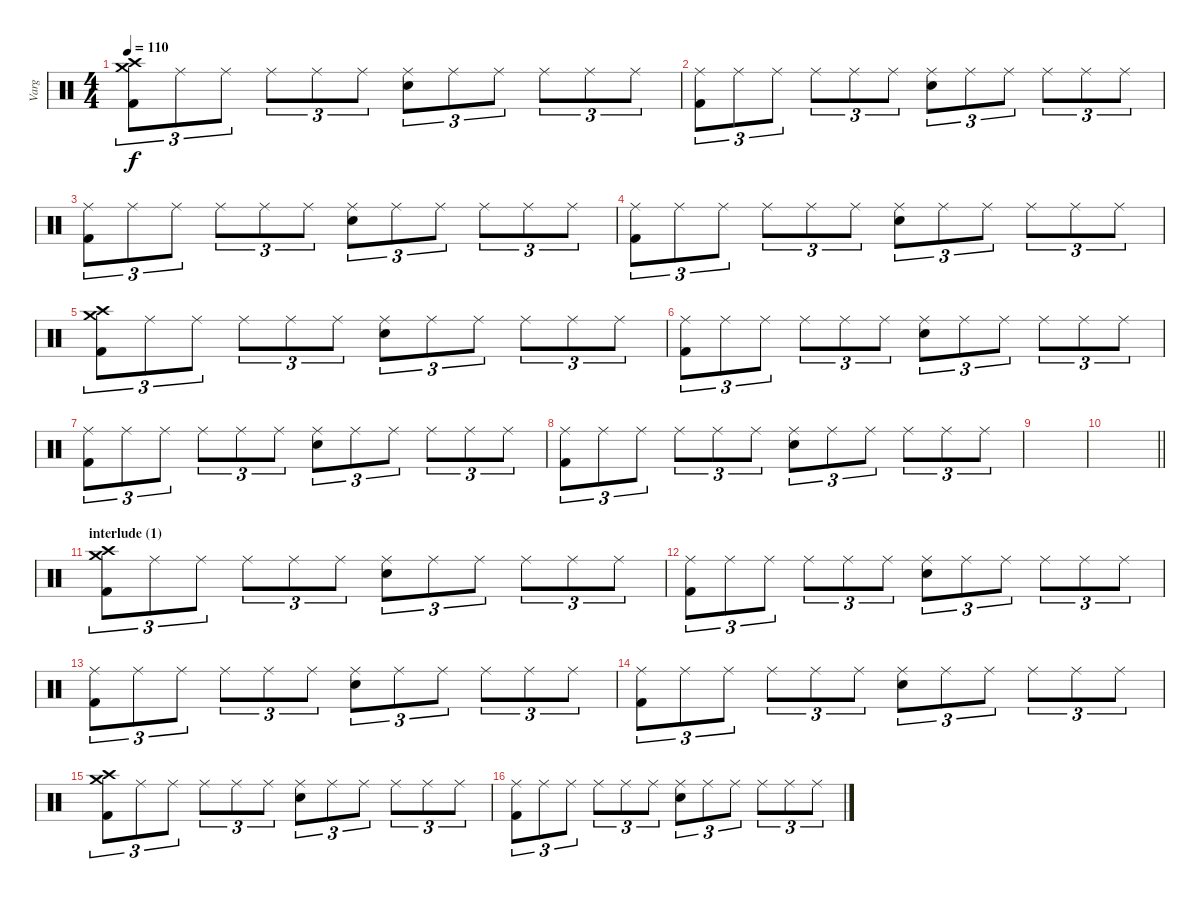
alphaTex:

\track ("Varg" "Varg") {instrument percussion}
\staff {score}
\articulation defaults
\ts (4 4)
\tempo 110
\clef neutral
\ks c
("Crash high (hit)" "Crash medium (hit)" "Kick (hit) 2").8{tu (3 2) dy f} "Ride (middle)".8{tu (3 2)} "Ride (middle)".8{tu (3 2)} "Ride (middle)".8{tu (3 2)} "Ride (middle)".8{tu (3 2)} "Ride (middle)".8{tu (3 2)} ("Ride (middle)" "Snare (hit) 2").8{tu (3 2)} "Ride (middle)".8{tu (3 2)} "Ride (middle)".8{tu (3 2)} "Ride (middle)".8{tu (3 2)} "Ride (middle)".8{tu (3 2)} "Ride (middle)".8{tu (3 2)} |
("Ride (middle)" "Kick (hit) 2").8{tu (3 2)} "Ride (middle)".8{tu (3 2)} "Ride (middle)".8{tu (3 2)} "Ride (middle)".8{tu (3 2)} "Ride (middle)".8{tu (3 2)} "Ride (middle)".8{tu (3 2)} ("Ride (middle)" "Snare (hit) 2").8{tu (3 2)} "Ride (middle)".8{tu (3 2)} "Ride (middle)".8{tu (3 2)} "Ride (middle)".8{tu (3 2)} "Ride (middle)".8{tu (3 2)} "Ride (middle)".8{tu (3 2)} |
("Ride (middle)" "Kick (hit) 2").8{tu (3 2)} "Ride (middle)".8{tu (3 2)} "Ride (middle)".8{tu (3 2)} "Ride (middle)".8{tu (3 2)} "Ride (middle)".8{tu (3 2)} "Ride (middle)".8{tu (3 2)} ("Ride (middle)" "Snare (hit) 2").8{tu (3 2)} "Ride (middle)".8{tu (3 2)} "Ride (middle)".8{tu (3 2)} "Ride (middle)".8{tu (3 2)} "Ride (middle)".8{tu (3 2)} "Ride (middle)".8{tu (3 2)} |
("Ride (middle)" "Kick (hit) 2").8{tu (3 2)} "Ride (middle)".8{tu (3 2)} "Ride (middle)".8{tu (3 2)} "Ride (middle)".8{tu (3 2)} "Ride (middle)".8{tu (3 2)} "Ride (middle)".8{tu (3 2)} ("Ride (middle)" "Snare (hit) 2").8{tu (3 2)} "Ride (middle)".8{tu (3 2)} "Ride (middle)".8{tu (3 2)} "Ride (middle)".8{tu (3 2)} "Ride (middle)".8{tu (3 2)} "Ride (middle)".8{tu (3 2)} |
("Crash high (hit)" "Crash medium (hit)" "Kick (hit) 2").8{tu (3 2)} "Ride (middle)".8{tu (3 2)} "Ride (middle)".8{tu (3 2)} "Ride (middle)".8{tu (3 2)} "Ride (middle)".8{tu (3 2)} "Ride (middle)".8{tu (3 2)} ("Ride (middle)" "Snare (hit) 2").8{tu (3 2)} "Ride (middle)".8{tu (3 2)} "Ride (middle)".8{tu (3 2)} "Ride (middle)".8{tu (3 2)} "Ride (middle)".8{tu (3 2)} "Ride (middle)".8{tu (3 2)} |
("Ride (middle)" "Kick (hit) 2").8{tu (3 2)} "Ride (middle)".8{tu (3 2)} "Ride (middle)".8{tu (3 2)} "Ride (middle)".8{tu (3 2)} "Ride (middle)".8{tu (3 2)} "Ride (middle)".8{tu (3 2)} ("Ride (middle)" "Snare (hit) 2").8{tu (3 2)} "Ride (middle)".8{tu (3 2)} "Ride (middle)".8{tu (3 2)} "Ride (middle)".8{tu (3 2)} "Ride (middle)".8{tu (3 2)} "Ride (middle)".8{tu (3 2)} |
("Ride (middle)" "Kick (hit) 2").8{tu (3 2)} "Ride (middle)".8{tu (3 2)} "Ride (middle)".8{tu (3 2)} "Ride (middle)".8{tu (3 2)} "Ride (middle)".8{tu (3 2)} "Ride (middle)".8{tu (3 2)} ("Ride (middle)" "Snare (hit) 2").8{tu (3 2)} "Ride (middle)".8{tu (3 2)} "Ride (middle)".8{tu (3 2)} "Ride (middle)".8{tu (3 2)} "Ride (middle)".8{tu (3 2)} "Ride (middle)".8{tu (3 2)} |
("Ride (middle)" "Kick (hit) 2").8{tu (3 2)} "Ride (middle)".8{tu (3 2)} "Ride (middle)".8{tu (3 2)} "Ride (middle)".8{tu (3 2)} "Ride (middle)".8{tu (3 2)} "Ride (middle)".8{tu (3 2)} ("Ride (middle)" "Snare (hit) 2").8{tu (3 2)} "Ride (middle)".8{tu (3 2)} "Ride (middle)".8{tu (3 2)} "Ride (middle)".8{tu (3 2)} "Ride (middle)".8{tu (3 2)} "Ride (middle)".8{tu (3 2)} |
|
\barLineRight lightlight
|
\section ("" "interlude (1)")
("Crash high (hit)" "Crash medium (hit)" "Kick (hit) 2").8{tu (3 2)} "Ride (middle)".8{tu (3 2)} "Ride (middle)".8{tu (3 2)} "Ride (middle)".8{tu (3 2)} "Ride (middle)".8{tu (3 2)} "Ride (middle)".8{tu (3 2)} ("Ride (middle)" "Snare (hit) 2").8{tu (3 2)} "Ride (middle)".8{tu (3 2)} "Ride (middle)".8{tu (3 2)} "Ride (middle)".8{tu (3 2)} "Ride (middle)".8{tu (3 2)} "Ride (middle)".8{tu (3 2)} |
("Ride (middle)" "Kick (hit) 2").8{tu (3 2)} "Ride (middle)".8{tu (3 2)} "Ride (middle)".8{tu (3 2)} "Ride (middle)".8{tu (3 2)} "Ride (middle)".8{tu (3 2)} "Ride (middle)".8{tu (3 2)} ("Ride (middle)" "Snare (hit) 2").8{tu (3 2)} "Ride (middle)".8{tu (3 2)} "Ride (middle)".8{tu (3 2)} "Ride (middle)".8{tu (3 2)} "Ride (middle)".8{tu (3 2)} "Ride (middle)".8{tu (3 2)} |
("Ride (middle)" "Kick (hit) 2").8{tu (3 2)} "Ride (middle)".8{tu (3 2)} "Ride (middle)".8{tu (3 2)} "Ride (middle)".8{tu (3 2)} "Ride (middle)".8{tu (3 2)} "Ride (middle)".8{tu (3 2)} ("Ride (middle)" "Snare (hit) 2").8{tu (3 2)} "Ride (middle)".8{tu (3 2)} "Ride (middle)".8{tu (3 2)} "Ride (middle)".8{tu (3 2)} "Ride (middle)".8{tu (3 2)} "Ride (middle)".8{tu (3 2)} |
("Ride (middle)" "Kick (hit) 2").8{tu (3 2)} "Ride (middle)".8{tu (3 2)} "Ride (middle)".8{tu (3 2)} "Ride (middle)".8{tu (3 2)} "Ride (middle)".8{tu (3 2)} "Ride (middle)".8{tu (3 2)} ("Ride (middle)" "Snare (hit) 2").8{tu (3 2)} "Ride (middle)".8{tu (3 2)} "Ride (middle)".8{tu (3 2)} "Ride (middle)".8{tu (3 2)} "Ride (middle)".8{tu (3 2)} "Ride (middle)".8{tu (3 2)} |
("Crash high (hit)" "Crash medium (hit)" "Kick (hit) 2").8{tu (3 2)} "Ride (middle)".8{tu (3 2)} "Ride (middle)".8{tu (3 2)} "Ride (middle)".8{tu (3 2)} "Ride (middle)".8{tu (3 2)} "Ride (middle)".8{tu (3 2)} ("Ride (middle)" "Snare (hit) 2").8{tu (3 2)} "Ride (middle)".8{tu (3 2)} "Ride (middle)".8{tu (3 2)} "Ride (middle)".8{tu (3 2)} "Ride (middle)".8{tu (3 2)} "Ride (middle)".8{tu (3 2)} |
("Ride (middle)" "Kick (hit) 2").8{tu (3 2)} "Ride (middle)".8{tu (3 2)} "Ride (middle)".8{tu (3 2)} "Ride (middle)".8{tu (3 2)} "Ride (middle)".8{tu (3 2)} "Ride (middle)".8{tu (3 2)} ("Ride (middle)" "Snare (hit) 2").8{tu (3 2)} "Ride (middle)".8{tu (3 2)} "Ride (middle)".8{tu (3 2)} "Ride (middle)".8{tu (3 2)} "Ride (middle)".8{tu (3 2)} "Ride (middle)".8{tu (3 2)}
